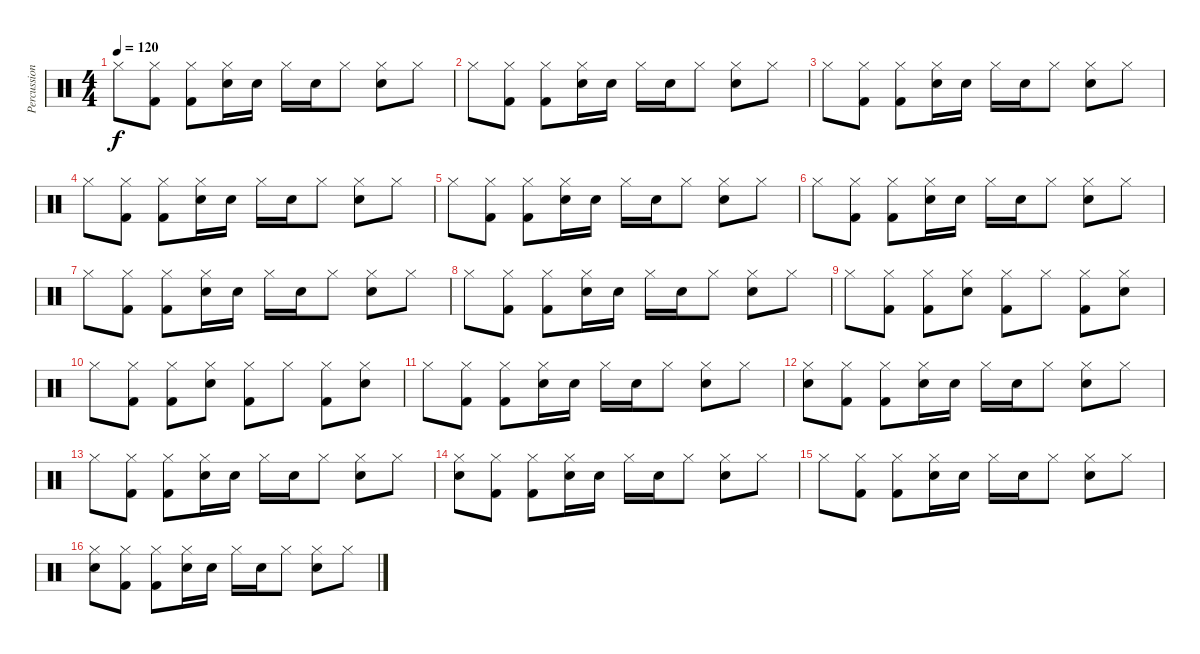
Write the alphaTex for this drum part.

\track ("Percussion" "Percussion") {instrument percussion}
\staff {score}
\articulation defaults
\ts (4 4)
\tempo 120
\clef neutral
\ks c "Hi-Hat (closed)".8{dy f}
("Kick (hit) 2" "Hi-Hat (closed)").8 ("Kick (hit) 2" "Hi-Hat (closed)").8 ("Electric Snare (hit)" "Hi-Hat (closed)").16 "Electric Snare (hit)".16 "Hi-Hat (closed)".16 "Electric Snare (hit)".16 "Hi-Hat (closed)".8 ("Electric Snare (hit)" "Hi-Hat (closed)").8 "Hi-Hat (closed)".8 |
"Hi-Hat (closed)".8 ("Kick (hit) 2" "Hi-Hat (closed)").8 ("Kick (hit) 2" "Hi-Hat (closed)").8 ("Electric Snare (hit)" "Hi-Hat (closed)").16 "Electric Snare (hit)".16 "Hi-Hat (closed)".16 "Electric Snare (hit)".16 "Hi-Hat (closed)".8 ("Electric Snare (hit)" "Hi-Hat (closed)").8 "Hi-Hat (closed)".8 |
"Hi-Hat (closed)".8 ("Kick (hit) 2" "Hi-Hat (closed)").8 ("Kick (hit) 2" "Hi-Hat (closed)").8 ("Electric Snare (hit)" "Hi-Hat (closed)").16 "Electric Snare (hit)".16 "Hi-Hat (closed)".16 "Electric Snare (hit)".16 "Hi-Hat (closed)".8 ("Electric Snare (hit)" "Hi-Hat (closed)").8 "Hi-Hat (closed)".8 |
"Hi-Hat (closed)".8 ("Kick (hit) 2" "Hi-Hat (closed)").8 ("Kick (hit) 2" "Hi-Hat (closed)").8 ("Electric Snare (hit)" "Hi-Hat (closed)").16 "Electric Snare (hit)".16 "Hi-Hat (closed)".16 "Electric Snare (hit)".16 "Hi-Hat (closed)".8 ("Electric Snare (hit)" "Hi-Hat (closed)").8 "Hi-Hat (closed)".8 |
"Hi-Hat (closed)".8 ("Kick (hit) 2" "Hi-Hat (closed)").8 ("Kick (hit) 2" "Hi-Hat (closed)").8 ("Electric Snare (hit)" "Hi-Hat (closed)").16 "Electric Snare (hit)".16 "Hi-Hat (closed)".16 "Electric Snare (hit)".16 "Hi-Hat (closed)".8 ("Electric Snare (hit)" "Hi-Hat (closed)").8 "Hi-Hat (closed)".8 |
"Hi-Hat (closed)".8 ("Kick (hit) 2" "Hi-Hat (closed)").8 ("Kick (hit) 2" "Hi-Hat (closed)").8 ("Electric Snare (hit)" "Hi-Hat (closed)").16 "Electric Snare (hit)".16 "Hi-Hat (closed)".16 "Electric Snare (hit)".16 "Hi-Hat (closed)".8 ("Electric Snare (hit)" "Hi-Hat (closed)").8 "Hi-Hat (closed)".8 |
"Hi-Hat (closed)".8 ("Kick (hit) 2" "Hi-Hat (closed)").8 ("Kick (hit) 2" "Hi-Hat (closed)").8 ("Electric Snare (hit)" "Hi-Hat (closed)").16 "Electric Snare (hit)".16 "Hi-Hat (closed)".16 "Electric Snare (hit)".16 "Hi-Hat (closed)".8 ("Electric Snare (hit)" "Hi-Hat (closed)").8 "Hi-Hat (closed)".8 |
"Hi-Hat (closed)".8 ("Kick (hit) 2" "Hi-Hat (closed)").8 ("Kick (hit) 2" "Hi-Hat (closed)").8 ("Electric Snare (hit)" "Hi-Hat (closed)").16 "Electric Snare (hit)".16 "Hi-Hat (closed)".16 "Electric Snare (hit)".16 "Hi-Hat (closed)".8 ("Electric Snare (hit)" "Hi-Hat (closed)").8 "Hi-Hat (closed)".8 |
"Hi-Hat (closed)".8 ("Kick (hit) 2" "Hi-Hat (closed)").8 ("Kick (hit) 2" "Hi-Hat (closed)").8 ("Electric Snare (hit)" "Hi-Hat (closed)").8 ("Kick (hit) 2" "Hi-Hat (closed)").8 "Hi-Hat (closed)".8 ("Kick (hit) 2" "Hi-Hat (closed)").8 ("Electric Snare (hit)" "Hi-Hat (closed)").8 |
"Hi-Hat (closed)".8 ("Kick (hit) 2" "Hi-Hat (closed)").8 ("Kick (hit) 2" "Hi-Hat (closed)").8 ("Electric Snare (hit)" "Hi-Hat (closed)").8 ("Kick (hit) 2" "Hi-Hat (closed)").8 "Hi-Hat (closed)".8 ("Kick (hit) 2" "Hi-Hat (closed)").8 ("Electric Snare (hit)" "Hi-Hat (closed)").8 |
"Hi-Hat (closed)".8 ("Kick (hit) 2" "Hi-Hat (closed)").8 ("Kick (hit) 2" "Hi-Hat (closed)").8 ("Electric Snare (hit)" "Hi-Hat (closed)").16 "Electric Snare (hit)".16 "Hi-Hat (closed)".16 "Electric Snare (hit)".16 "Hi-Hat (closed)".8 ("Electric Snare (hit)" "Hi-Hat (closed)").8 "Hi-Hat (closed)".8 |
("Electric Snare (hit)" "Hi-Hat (closed)").8 ("Kick (hit) 2" "Hi-Hat (closed)").8 ("Kick (hit) 2" "Hi-Hat (closed)").8 ("Electric Snare (hit)" "Hi-Hat (closed)").16 "Electric Snare (hit)".16 "Hi-Hat (closed)".16 "Electric Snare (hit)".16 "Hi-Hat (closed)".8 ("Electric Snare (hit)" "Hi-Hat (closed)").8 "Hi-Hat (closed)".8 |
"Hi-Hat (closed)".8 ("Kick (hit) 2" "Hi-Hat (closed)").8 ("Kick (hit) 2" "Hi-Hat (closed)").8 ("Electric Snare (hit)" "Hi-Hat (closed)").16 "Electric Snare (hit)".16 "Hi-Hat (closed)".16 "Electric Snare (hit)".16 "Hi-Hat (closed)".8 ("Electric Snare (hit)" "Hi-Hat (closed)").8 "Hi-Hat (closed)".8 |
("Electric Snare (hit)" "Hi-Hat (closed)").8 ("Kick (hit) 2" "Hi-Hat (closed)").8 ("Kick (hit) 2" "Hi-Hat (closed)").8 ("Electric Snare (hit)" "Hi-Hat (closed)").16 "Electric Snare (hit)".16 "Hi-Hat (closed)".16 "Electric Snare (hit)".16 "Hi-Hat (closed)".8 ("Electric Snare (hit)" "Hi-Hat (closed)").8 "Hi-Hat (closed)".8 |
"Hi-Hat (closed)".8 ("Kick (hit) 2" "Hi-Hat (closed)").8 ("Kick (hit) 2" "Hi-Hat (closed)").8 ("Electric Snare (hit)" "Hi-Hat (closed)").16 "Electric Snare (hit)".16 "Hi-Hat (closed)".16 "Electric Snare (hit)".16 "Hi-Hat (closed)".8 ("Electric Snare (hit)" "Hi-Hat (closed)").8 "Hi-Hat (closed)".8 |
("Electric Snare (hit)" "Hi-Hat (closed)").8 ("Kick (hit) 2" "Hi-Hat (closed)").8 ("Kick (hit) 2" "Hi-Hat (closed)").8 ("Electric Snare (hit)" "Hi-Hat (closed)").16 "Electric Snare (hit)".16 "Hi-Hat (closed)".16 "Electric Snare (hit)".16 "Hi-Hat (closed)".8 ("Electric Snare (hit)" "Hi-Hat (closed)").8 "Hi-Hat (closed)".8
